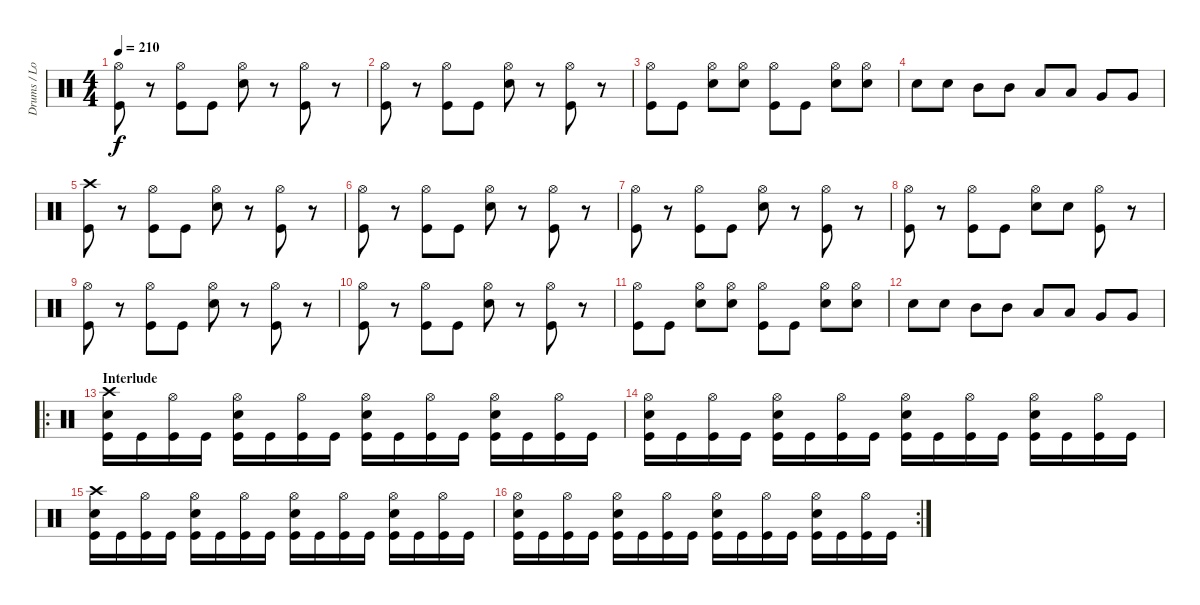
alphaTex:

\track ("Drums / Louie Clemente" "Drums / Lo") {instrument percussion}
\staff {score}
\articulation defaults
\ts (4 4)
\tempo 210
\clef neutral
\ks c
("Hi-Hat (open)" "Kick (hit)").8{dy f} r.8 ("Hi-Hat (open)" "Kick (hit)").8 "Kick (hit)".8 ("Hi-Hat (open)" "Snare (hit) 2").8 r.8 ("Hi-Hat (open)" "Kick (hit)").8 r.8 |
("Hi-Hat (open)" "Kick (hit)").8 r.8 ("Hi-Hat (open)" "Kick (hit)").8 "Kick (hit)".8 ("Hi-Hat (open)" "Snare (hit) 2").8 r.8 ("Hi-Hat (open)" "Kick (hit)").8 r.8 |
("Hi-Hat (open)" "Kick (hit)").8 "Kick (hit)".8 ("Hi-Hat (open)" "Snare (hit) 2").8 ("Hi-Hat (open)" "Snare (hit) 2").8 ("Hi-Hat (open)" "Kick (hit)").8 "Kick (hit)".8 ("Hi-Hat (open)" "Snare (hit) 2").8 ("Hi-Hat (open)" "Snare (hit) 2").8 |
"Snare (hit) 2".8 "Snare (hit) 2".8 "Mid Tom (hit)".8 "Mid Tom (hit)".8 "Low Tom (hit)".8 "Low Tom (hit)".8 "Very Low Tom (hit)".8 "Very Low Tom (hit)".8 |
("Crash high (hit)" "Kick (hit)").8 r.8 ("Hi-Hat (open)" "Kick (hit)").8 "Kick (hit)".8 ("Hi-Hat (open)" "Snare (hit) 2").8 r.8 ("Hi-Hat (open)" "Kick (hit)").8 r.8 |
("Hi-Hat (open)" "Kick (hit)").8 r.8 ("Hi-Hat (open)" "Kick (hit)").8 "Kick (hit)".8 ("Hi-Hat (open)" "Snare (hit) 2").8 r.8 ("Hi-Hat (open)" "Kick (hit)").8 r.8 |
("Hi-Hat (open)" "Kick (hit)").8 r.8 ("Hi-Hat (open)" "Kick (hit)").8 "Kick (hit)".8 ("Hi-Hat (open)" "Snare (hit) 2").8 r.8 ("Hi-Hat (open)" "Kick (hit)").8 r.8 |
("Hi-Hat (open)" "Kick (hit)").8 r.8 ("Hi-Hat (open)" "Kick (hit)").8 "Kick (hit)".8 ("Hi-Hat (open)" "Snare (hit) 2").8 "Snare (hit) 2".8 ("Hi-Hat (open)" "Kick (hit)").8 r.8 |
("Hi-Hat (open)" "Kick (hit)").8 r.8 ("Hi-Hat (open)" "Kick (hit)").8 "Kick (hit)".8 ("Hi-Hat (open)" "Snare (hit) 2").8 r.8 ("Hi-Hat (open)" "Kick (hit)").8 r.8 |
("Hi-Hat (open)" "Kick (hit)").8 r.8 ("Hi-Hat (open)" "Kick (hit)").8 "Kick (hit)".8 ("Hi-Hat (open)" "Snare (hit) 2").8 r.8 ("Hi-Hat (open)" "Kick (hit)").8 r.8 |
("Hi-Hat (open)" "Kick (hit)").8 "Kick (hit)".8 ("Hi-Hat (open)" "Snare (hit) 2").8 ("Hi-Hat (open)" "Snare (hit) 2").8 ("Hi-Hat (open)" "Kick (hit)").8 "Kick (hit)".8 ("Hi-Hat (open)" "Snare (hit) 2").8 ("Hi-Hat (open)" "Snare (hit) 2").8 |
"Snare (hit) 2".8 "Snare (hit) 2".8 "Mid Tom (hit)".8 "Mid Tom (hit)".8 "Low Tom (hit)".8 "Low Tom (hit)".8 "Very Low Tom (hit)".8 "Very Low Tom (hit)".8 |
\ro
\section ("" "Interlude")
("Crash high (hit)" "Snare (hit) 2" "Kick (hit)").16 "Kick (hit)".16 ("Hi-Hat (open)" "Kick (hit)").16 "Kick (hit)".16 ("Hi-Hat (open)" "Snare (hit) 2" "Kick (hit)").16 "Kick (hit)".16 ("Hi-Hat (open)" "Kick (hit)").16 "Kick (hit)".16 ("Hi-Hat (open)" "Snare (hit) 2" "Kick (hit)").16 "Kick (hit)".16 ("Hi-Hat (open)" "Kick (hit)").16 "Kick (hit)".16 ("Hi-Hat (open)" "Snare (hit) 2" "Kick (hit)").16 "Kick (hit)".16 ("Hi-Hat (open)" "Kick (hit)").16 "Kick (hit)".16 |
("Hi-Hat (open)" "Snare (hit) 2" "Kick (hit)").16 "Kick (hit)".16 ("Hi-Hat (open)" "Kick (hit)").16 "Kick (hit)".16 ("Hi-Hat (open)" "Snare (hit) 2" "Kick (hit)").16 "Kick (hit)".16 ("Hi-Hat (open)" "Kick (hit)").16 "Kick (hit)".16 ("Hi-Hat (open)" "Snare (hit) 2" "Kick (hit)").16 "Kick (hit)".16 ("Hi-Hat (open)" "Kick (hit)").16 "Kick (hit)".16 ("Hi-Hat (open)" "Snare (hit) 2" "Kick (hit)").16 "Kick (hit)".16 ("Hi-Hat (open)" "Kick (hit)").16 "Kick (hit)".16 |
("Crash high (hit)" "Snare (hit) 2" "Kick (hit)").16 "Kick (hit)".16 ("Hi-Hat (open)" "Kick (hit)").16 "Kick (hit)".16 ("Hi-Hat (open)" "Snare (hit) 2" "Kick (hit)").16 "Kick (hit)".16 ("Hi-Hat (open)" "Kick (hit)").16 "Kick (hit)".16 ("Hi-Hat (open)" "Snare (hit) 2" "Kick (hit)").16 "Kick (hit)".16 ("Hi-Hat (open)" "Kick (hit)").16 "Kick (hit)".16 ("Hi-Hat (open)" "Snare (hit) 2" "Kick (hit)").16 "Kick (hit)".16 ("Hi-Hat (open)" "Kick (hit)").16 "Kick (hit)".16 |
\rc 2
("Hi-Hat (open)" "Snare (hit) 2" "Kick (hit)").16 "Kick (hit)".16 ("Hi-Hat (open)" "Kick (hit)").16 "Kick (hit)".16 ("Hi-Hat (open)" "Snare (hit) 2" "Kick (hit)").16 "Kick (hit)".16 ("Hi-Hat (open)" "Kick (hit)").16 "Kick (hit)".16 ("Hi-Hat (open)" "Snare (hit) 2" "Kick (hit)").16 "Kick (hit)".16 ("Hi-Hat (open)" "Kick (hit)").16 "Kick (hit)".16 ("Hi-Hat (open)" "Snare (hit) 2" "Kick (hit)").16 "Kick (hit)".16 ("Hi-Hat (open)" "Kick (hit)").16 "Kick (hit)".16
